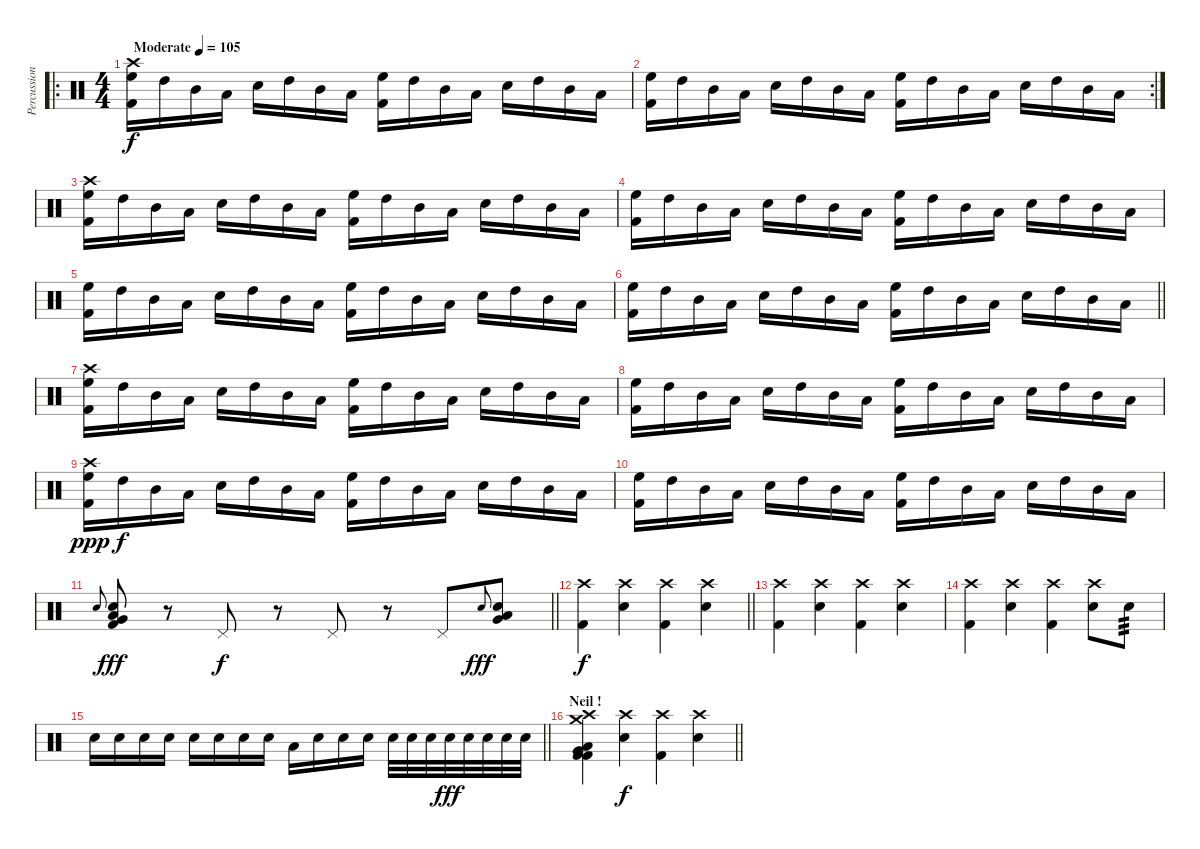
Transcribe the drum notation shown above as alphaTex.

\track ("Percussions" "Percussion") {instrument percussion}
\staff {score}
\articulation defaults
\ro
\ts (4 4)
\tempo (105 "Moderate")
\clef neutral
\ks c
("Crash high (hit)" "High Floor Tom (hit)" "Kick (hit) 2").16{dy f} "High Tom (hit)".16 "Mid Tom (hit)".16 "Low Tom (hit)".16 "Electric Snare (hit)".16 "High Tom (hit)".16 "Mid Tom (hit)".16 "Low Tom (hit)".16 ("High Floor Tom (hit)" "Kick (hit) 2").16 "High Tom (hit)".16 "Mid Tom (hit)".16 "Low Tom (hit)".16 "Electric Snare (hit)".16 "High Tom (hit)".16 "Mid Tom (hit)".16 "Low Tom (hit)".16 |
\rc 2
("High Floor Tom (hit)" "Kick (hit) 2").16 "High Tom (hit)".16 "Mid Tom (hit)".16 "Low Tom (hit)".16 "Electric Snare (hit)".16 "High Tom (hit)".16 "Mid Tom (hit)".16 "Low Tom (hit)".16 ("High Floor Tom (hit)" "Kick (hit) 2").16 "High Tom (hit)".16 "Mid Tom (hit)".16 "Low Tom (hit)".16 "Electric Snare (hit)".16 "High Tom (hit)".16 "Mid Tom (hit)".16 "Low Tom (hit)".16 |
("Crash high (hit)" "High Floor Tom (hit)" "Kick (hit) 2").16 "High Tom (hit)".16 "Mid Tom (hit)".16 "Low Tom (hit)".16 "Electric Snare (hit)".16 "High Tom (hit)".16 "Mid Tom (hit)".16 "Low Tom (hit)".16 ("High Floor Tom (hit)" "Kick (hit) 2").16 "High Tom (hit)".16 "Mid Tom (hit)".16 "Low Tom (hit)".16 "Electric Snare (hit)".16 "High Tom (hit)".16 "Mid Tom (hit)".16 "Low Tom (hit)".16 |
("High Floor Tom (hit)" "Kick (hit) 2").16 "High Tom (hit)".16 "Mid Tom (hit)".16 "Low Tom (hit)".16 "Electric Snare (hit)".16 "High Tom (hit)".16 "Mid Tom (hit)".16 "Low Tom (hit)".16 ("High Floor Tom (hit)" "Kick (hit) 2").16 "High Tom (hit)".16 "Mid Tom (hit)".16 "Low Tom (hit)".16 "Electric Snare (hit)".16 "High Tom (hit)".16 "Mid Tom (hit)".16 "Low Tom (hit)".16 |
("High Floor Tom (hit)" "Kick (hit) 2").16 "High Tom (hit)".16 "Mid Tom (hit)".16 "Low Tom (hit)".16 "Electric Snare (hit)".16 "High Tom (hit)".16 "Mid Tom (hit)".16 "Low Tom (hit)".16 ("High Floor Tom (hit)" "Kick (hit) 2").16 "High Tom (hit)".16 "Mid Tom (hit)".16 "Low Tom (hit)".16 "Electric Snare (hit)".16 "High Tom (hit)".16 "Mid Tom (hit)".16 "Low Tom (hit)".16 |
\barLineRight lightlight
("High Floor Tom (hit)" "Kick (hit) 2").16 "High Tom (hit)".16 "Mid Tom (hit)".16 "Low Tom (hit)".16 "Electric Snare (hit)".16 "High Tom (hit)".16 "Mid Tom (hit)".16 "Low Tom (hit)".16 ("High Floor Tom (hit)" "Kick (hit) 2").16 "High Tom (hit)".16 "Mid Tom (hit)".16 "Low Tom (hit)".16 "Electric Snare (hit)".16 "High Tom (hit)".16 "Mid Tom (hit)".16 "Low Tom (hit)".16 |
\section ("" "")
("Crash high (hit)" "High Floor Tom (hit)" "Kick (hit) 2").16 "High Tom (hit)".16 "Mid Tom (hit)".16 "Low Tom (hit)".16 "Electric Snare (hit)".16 "High Tom (hit)".16 "Mid Tom (hit)".16 "Low Tom (hit)".16 ("High Floor Tom (hit)" "Kick (hit) 2").16 "High Tom (hit)".16 "Mid Tom (hit)".16 "Low Tom (hit)".16 "Electric Snare (hit)".16 "High Tom (hit)".16 "Mid Tom (hit)".16 "Low Tom (hit)".16 |
("High Floor Tom (hit)" "Kick (hit) 2").16 "High Tom (hit)".16 "Mid Tom (hit)".16 "Low Tom (hit)".16 "Electric Snare (hit)".16 "High Tom (hit)".16 "Mid Tom (hit)".16 "Low Tom (hit)".16 ("High Floor Tom (hit)" "Kick (hit) 2").16 "High Tom (hit)".16 "Mid Tom (hit)".16 "Low Tom (hit)".16 "Electric Snare (hit)".16 "High Tom (hit)".16 "Mid Tom (hit)".16 "Low Tom (hit)".16 |
("Crash high (hit)" "High Floor Tom (hit)" "Kick (hit) 2").16{dy ppp} "High Tom (hit)".16{dy f} "Mid Tom (hit)".16 "Low Tom (hit)".16 "Electric Snare (hit)".16 "High Tom (hit)".16 "Mid Tom (hit)".16 "Low Tom (hit)".16 ("High Floor Tom (hit)" "Kick (hit) 2").16 "High Tom (hit)".16 "Mid Tom (hit)".16 "Low Tom (hit)".16 "Electric Snare (hit)".16 "High Tom (hit)".16 "Mid Tom (hit)".16 "Low Tom (hit)".16 |
("High Floor Tom (hit)" "Kick (hit) 2").16 "High Tom (hit)".16 "Mid Tom (hit)".16 "Low Tom (hit)".16 "Electric Snare (hit)".16 "High Tom (hit)".16 "Mid Tom (hit)".16 "Low Tom (hit)".16 ("High Floor Tom (hit)" "Kick (hit) 2").16 "High Tom (hit)".16 "Mid Tom (hit)".16 "Low Tom (hit)".16 "Electric Snare (hit)".16 "High Tom (hit)".16 "Mid Tom (hit)".16 "Low Tom (hit)".16 |
\barLineRight lightlight "Electric Snare (hit)".8{gr onbeat}
("Electric Snare (hit)" "Very Low Tom (hit)" "Low Floor Tom (hit)" "Kick (hit) 2").8{dy fff} r.8 "Pedal Hi-Hat (hit)".8{dy f} r.8 "Pedal Hi-Hat (hit)".8 r.8 "Pedal Hi-Hat (hit)".8 "Electric Snare (hit)".8{gr onbeat dy fff} ("Electric Snare (hit)" "Very Low Tom (hit)" "Low Tom (hit)").8 |
\section ("" "")
\barLineRight lightlight
("Crash high (hit)" "Kick (hit) 2").4{dy f} ("Crash high (hit)" "Electric Snare (hit)").4 ("Crash high (hit)" "Kick (hit) 2").4 ("Crash high (hit)" "Electric Snare (hit)").4 |
("Crash high (hit)" "Kick (hit) 2").4 ("Crash high (hit)" "Electric Snare (hit)").4 ("Crash high (hit)" "Kick (hit) 2").4 ("Crash high (hit)" "Electric Snare (hit)").4 |
("Crash high (hit)" "Kick (hit) 2").4 ("Crash high (hit)" "Electric Snare (hit)").4 ("Crash high (hit)" "Kick (hit) 2").4 ("Crash high (hit)" "Electric Snare (hit)").8 "Electric Snare (hit)".8{tp 3} |
\barLineRight lightlight "Electric Snare (hit)".16 "Electric Snare (hit)".16 "Electric Snare (hit)".16 "Electric Snare (hit)".16 "Electric Snare (hit)".16 "Electric Snare (hit)".16 "Electric Snare (hit)".16 "Electric Snare (hit)".16 "Low Tom (hit)".16 "Electric Snare (hit)".16 "Electric Snare (hit)".16 "Electric Snare (hit)".16 "Electric Snare (hit)".32 "Electric Snare (hit)".32 "Electric Snare (hit)".32 "Electric Snare (hit)".32{dy fff} "Electric Snare (hit)".32 "Electric Snare (hit)".32 "Electric Snare (hit)".32 "Electric Snare (hit)".32
|
\section ("" "Neil !")
\barLineRight lightlight
("Crash high (hit)" "Crash medium (hit)" "Very Low Tom (hit)" "Low Floor Tom (hit)" "Kick (hit) 2" "Kick (hit) 2").4 ("Crash high (hit)" "Electric Snare (hit)").4{dy f} ("Crash high (hit)" "Kick (hit) 2").4 ("Crash high (hit)" "Electric Snare (hit)").4
